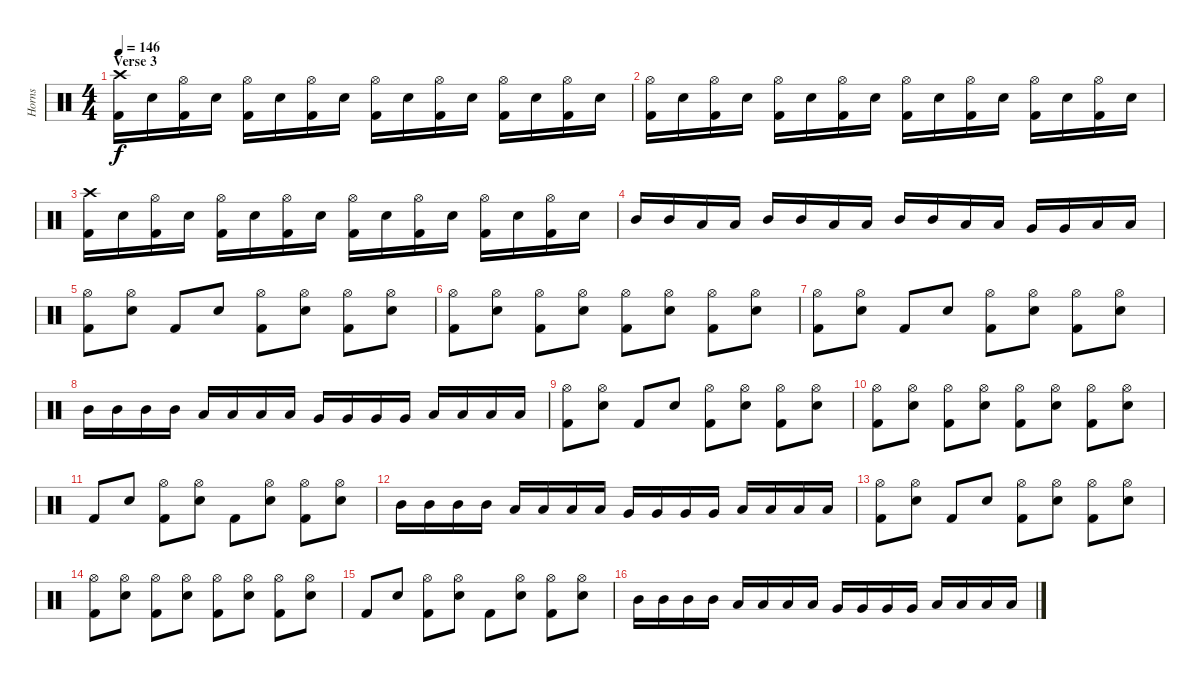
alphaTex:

\track ("Horns" "Horns") {instrument percussion}
\staff {score}
\articulation defaults
\ts (4 4)
\section ("" "Verse 3")
\tempo 146
\clef neutral
\ks c
("Crash high (hit)" "Kick (hit) 2").16{dy f} "Snare (hit) 2".16 ("Hi-Hat (open)" "Kick (hit) 2").16 "Snare (hit) 2".16 ("Hi-Hat (open)" "Kick (hit) 2").16 "Snare (hit) 2".16 ("Hi-Hat (open)" "Kick (hit) 2").16 "Snare (hit) 2".16 ("Hi-Hat (open)" "Kick (hit) 2").16 "Snare (hit) 2".16 ("Hi-Hat (open)" "Kick (hit) 2").16 "Snare (hit) 2".16 ("Hi-Hat (open)" "Kick (hit) 2").16 "Snare (hit) 2".16 ("Hi-Hat (open)" "Kick (hit) 2").16 "Snare (hit) 2".16 |
("Hi-Hat (open)" "Kick (hit) 2").16 "Snare (hit) 2".16 ("Hi-Hat (open)" "Kick (hit) 2").16 "Snare (hit) 2".16 ("Hi-Hat (open)" "Kick (hit) 2").16 "Snare (hit) 2".16 ("Hi-Hat (open)" "Kick (hit) 2").16 "Snare (hit) 2".16 ("Hi-Hat (open)" "Kick (hit) 2").16 "Snare (hit) 2".16 ("Hi-Hat (open)" "Kick (hit) 2").16 "Snare (hit) 2".16 ("Hi-Hat (open)" "Kick (hit) 2").16 "Snare (hit) 2".16 ("Hi-Hat (open)" "Kick (hit) 2").16 "Snare (hit) 2".16 |
("Crash high (hit)" "Kick (hit) 2").16 "Snare (hit) 2".16 ("Hi-Hat (open)" "Kick (hit) 2").16 "Snare (hit) 2".16 ("Hi-Hat (open)" "Kick (hit) 2").16 "Snare (hit) 2".16 ("Hi-Hat (open)" "Kick (hit) 2").16 "Snare (hit) 2".16 ("Hi-Hat (open)" "Kick (hit) 2").16 "Snare (hit) 2".16 ("Hi-Hat (open)" "Kick (hit) 2").16 "Snare (hit) 2".16 ("Hi-Hat (open)" "Kick (hit) 2").16 "Snare (hit) 2".16 ("Hi-Hat (open)" "Kick (hit) 2").16 "Snare (hit) 2".16 |
"Mid Tom (hit)".16 "Mid Tom (hit)".16 "Low Tom (hit)".16 "Low Tom (hit)".16 "Mid Tom (hit)".16 "Mid Tom (hit)".16 "Low Tom (hit)".16 "Low Tom (hit)".16 "Mid Tom (hit)".16 "Mid Tom (hit)".16 "Low Tom (hit)".16 "Low Tom (hit)".16 "Very Low Tom (hit)".16 "Very Low Tom (hit)".16 "Low Floor Tom (hit)".16 "Low Floor Tom (hit)".16 |
("Hi-Hat (open)" "Kick (hit) 2").8 ("Hi-Hat (open)" "Snare (hit) 2").8 "Kick (hit) 2".8 "Snare (hit) 2".8 ("Hi-Hat (open)" "Kick (hit) 2").8 ("Hi-Hat (open)" "Snare (hit) 2").8 ("Hi-Hat (open)" "Kick (hit) 2").8 ("Hi-Hat (open)" "Snare (hit) 2").8 |
("Hi-Hat (open)" "Kick (hit) 2").8 ("Hi-Hat (open)" "Snare (hit) 2").8 ("Hi-Hat (open)" "Kick (hit) 2").8 ("Hi-Hat (open)" "Snare (hit) 2").8 ("Hi-Hat (open)" "Kick (hit) 2").8 ("Hi-Hat (open)" "Snare (hit) 2").8 ("Hi-Hat (open)" "Kick (hit) 2").8 ("Hi-Hat (open)" "Snare (hit) 2").8 |
("Hi-Hat (open)" "Kick (hit) 2").8 ("Hi-Hat (open)" "Snare (hit) 2").8 "Kick (hit) 2".8 "Snare (hit) 2".8 ("Hi-Hat (open)" "Kick (hit) 2").8 ("Hi-Hat (open)" "Snare (hit) 2").8 ("Hi-Hat (open)" "Kick (hit) 2").8 ("Hi-Hat (open)" "Snare (hit) 2").8 |
"Mid Tom (hit)".16 "Mid Tom (hit)".16 "Mid Tom (hit)".16 "Mid Tom (hit)".16 "Low Tom (hit)".16 "Low Tom (hit)".16 "Low Tom (hit)".16 "Low Tom (hit)".16 "Very Low Tom (hit)".16 "Very Low Tom (hit)".16 "Very Low Tom (hit)".16 "Very Low Tom (hit)".16 "Low Floor Tom (hit)".16 "Low Floor Tom (hit)".16 "Low Floor Tom (hit)".16 "Low Floor Tom (hit)".16 |
("Hi-Hat (open)" "Kick (hit) 2").8 ("Hi-Hat (open)" "Snare (hit) 2").8 "Kick (hit) 2".8 "Snare (hit) 2".8 ("Hi-Hat (open)" "Kick (hit) 2").8 ("Hi-Hat (open)" "Snare (hit) 2").8 ("Hi-Hat (open)" "Kick (hit) 2").8 ("Hi-Hat (open)" "Snare (hit) 2").8 |
("Hi-Hat (open)" "Kick (hit) 2").8 ("Hi-Hat (open)" "Snare (hit) 2").8 ("Hi-Hat (open)" "Kick (hit) 2").8 ("Hi-Hat (open)" "Snare (hit) 2").8 ("Hi-Hat (open)" "Kick (hit) 2").8 ("Hi-Hat (open)" "Snare (hit) 2").8 ("Hi-Hat (open)" "Kick (hit) 2").8 ("Hi-Hat (open)" "Snare (hit) 2").8 |
"Kick (hit) 2".8 "Snare (hit) 2".8 ("Hi-Hat (open)" "Kick (hit) 2").8 ("Hi-Hat (open)" "Snare (hit) 2").8 "Kick (hit) 2".8 ("Hi-Hat (open)" "Snare (hit) 2").8 ("Hi-Hat (open)" "Kick (hit) 2").8 ("Hi-Hat (open)" "Snare (hit) 2").8 |
"Mid Tom (hit)".16 "Mid Tom (hit)".16 "Mid Tom (hit)".16 "Mid Tom (hit)".16 "Low Tom (hit)".16 "Low Tom (hit)".16 "Low Tom (hit)".16 "Low Tom (hit)".16 "Very Low Tom (hit)".16 "Very Low Tom (hit)".16 "Very Low Tom (hit)".16 "Very Low Tom (hit)".16 "Low Floor Tom (hit)".16 "Low Floor Tom (hit)".16 "Low Floor Tom (hit)".16 "Low Floor Tom (hit)".16 |
("Hi-Hat (open)" "Kick (hit) 2").8 ("Hi-Hat (open)" "Snare (hit) 2").8 "Kick (hit) 2".8 "Snare (hit) 2".8 ("Hi-Hat (open)" "Kick (hit) 2").8 ("Hi-Hat (open)" "Snare (hit) 2").8 ("Hi-Hat (open)" "Kick (hit) 2").8 ("Hi-Hat (open)" "Snare (hit) 2").8 |
("Hi-Hat (open)" "Kick (hit) 2").8 ("Hi-Hat (open)" "Snare (hit) 2").8 ("Hi-Hat (open)" "Kick (hit) 2").8 ("Hi-Hat (open)" "Snare (hit) 2").8 ("Hi-Hat (open)" "Kick (hit) 2").8 ("Hi-Hat (open)" "Snare (hit) 2").8 ("Hi-Hat (open)" "Kick (hit) 2").8 ("Hi-Hat (open)" "Snare (hit) 2").8 |
"Kick (hit) 2".8 "Snare (hit) 2".8 ("Hi-Hat (open)" "Kick (hit) 2").8 ("Hi-Hat (open)" "Snare (hit) 2").8 "Kick (hit) 2".8 ("Hi-Hat (open)" "Snare (hit) 2").8 ("Hi-Hat (open)" "Kick (hit) 2").8 ("Hi-Hat (open)" "Snare (hit) 2").8 |
"Mid Tom (hit)".16 "Mid Tom (hit)".16 "Mid Tom (hit)".16 "Mid Tom (hit)".16 "Low Tom (hit)".16 "Low Tom (hit)".16 "Low Tom (hit)".16 "Low Tom (hit)".16 "Very Low Tom (hit)".16 "Very Low Tom (hit)".16 "Very Low Tom (hit)".16 "Very Low Tom (hit)".16 "Low Floor Tom (hit)".16 "Low Floor Tom (hit)".16 "Low Floor Tom (hit)".16 "Low Floor Tom (hit)".16
